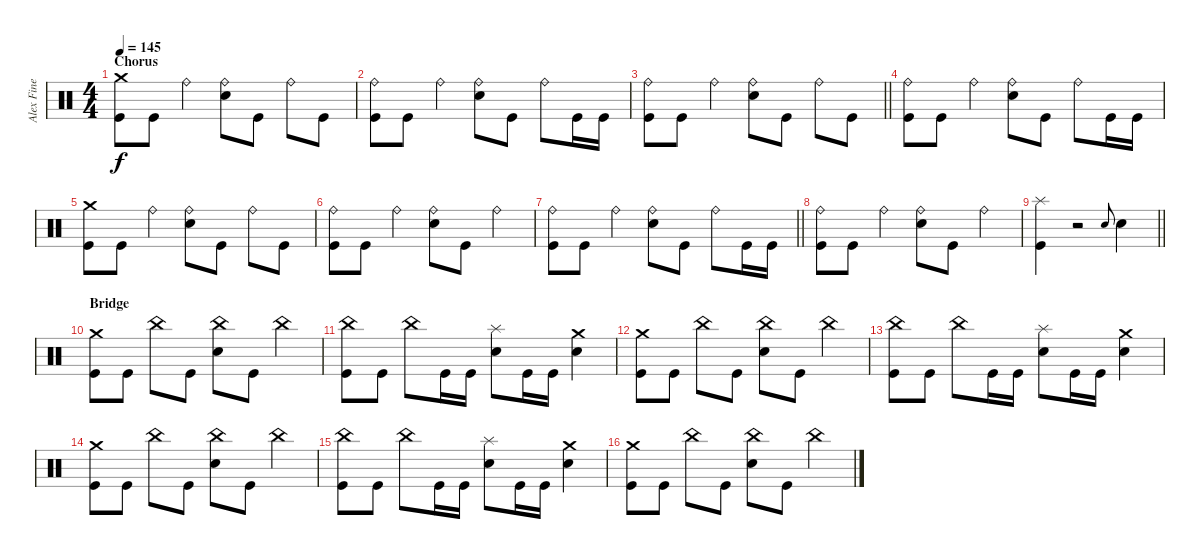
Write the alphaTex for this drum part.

\track ("Alex Fine (Drums)" "Alex Fine ") {instrument percussion}
\staff {score}
\articulation defaults
\ts (4 4)
\section ("" "Chorus")
\tempo 145
\clef neutral
\ks c
("Crash medium (hit)" "Kick (hit)").8{dy f} "Kick (hit)".8 "Ride (bell)".4 ("Ride (bell)" "Snare (hit) 2").8 "Kick (hit)".8 "Ride (bell)".8 "Kick (hit)".8 |
("Ride (bell)" "Kick (hit)").8 "Kick (hit)".8 "Ride (bell)".4 ("Ride (bell)" "Snare (hit) 2").8 "Kick (hit)".8 "Ride (bell)".8 "Kick (hit)".16 "Kick (hit)".16 |
\barLineRight lightlight
("Ride (bell)" "Kick (hit)").8 "Kick (hit)".8 "Ride (bell)".4 ("Ride (bell)" "Snare (hit) 2").8 "Kick (hit)".8 "Ride (bell)".8 "Kick (hit)".8 |
("Ride (bell)" "Kick (hit)").8 "Kick (hit)".8 "Ride (bell)".4 ("Ride (bell)" "Snare (hit) 2").8 "Kick (hit)".8 "Ride (bell)".8 "Kick (hit)".16 "Kick (hit)".16 |
("Crash medium (hit)" "Kick (hit)").8 "Kick (hit)".8 "Ride (bell)".4 ("Ride (bell)" "Snare (hit) 2").8 "Kick (hit)".8 "Ride (bell)".8 "Kick (hit)".8 |
("Ride (bell)" "Kick (hit)").8 "Kick (hit)".8 "Ride (bell)".4 ("Ride (bell)" "Snare (hit) 2").8 "Kick (hit)".8 "Ride (bell)".4 |
\barLineRight lightlight
("Ride (bell)" "Kick (hit)").8 "Kick (hit)".8 "Ride (bell)".4 ("Ride (bell)" "Snare (hit) 2").8 "Kick (hit)".8 "Ride (bell)".8 "Kick (hit)".16 "Kick (hit)".16 |
("Ride (bell)" "Kick (hit)").8 "Kick (hit)".8 "Ride (bell)".4 ("Ride (bell)" "Snare (hit) 2").8 "Kick (hit)".8 "Ride (bell)".4 |
\barLineRight lightlight
("Splash (hit)" "Kick (hit)").4 r.2 "Snare (hit) 2".8{gr onbeat} "Snare (hit) 2".4 |
\section ("" "Bridge")
("Crash medium (hit)" "Kick (hit)").8 "Kick (hit)".8 "China (hit)".8 "Kick (hit)".8 ("China (hit)" "Snare (hit) 2").8 "Kick (hit)".8 "China (hit)".4 |
("China (hit)" "Kick (hit)").8 "Kick (hit)".8 "China (hit)".8 "Kick (hit)".16 "Kick (hit)".16 ("Splash (hit)" "Snare (hit) 2").8 "Kick (hit)".16 "Kick (hit)".16 ("Crash medium (hit)" "Snare (hit) 2").4 |
("Crash medium (hit)" "Kick (hit)").8 "Kick (hit)".8 "China (hit)".8 "Kick (hit)".8 ("China (hit)" "Snare (hit) 2").8 "Kick (hit)".8 "China (hit)".4 |
("China (hit)" "Kick (hit)").8 "Kick (hit)".8 "China (hit)".8 "Kick (hit)".16 "Kick (hit)".16 ("Splash (hit)" "Snare (hit) 2").8 "Kick (hit)".16 "Kick (hit)".16 ("Crash medium (hit)" "Snare (hit) 2").4 |
("Crash medium (hit)" "Kick (hit)").8 "Kick (hit)".8 "China (hit)".8 "Kick (hit)".8 ("China (hit)" "Snare (hit) 2").8 "Kick (hit)".8 "China (hit)".4 |
("China (hit)" "Kick (hit)").8 "Kick (hit)".8 "China (hit)".8 "Kick (hit)".16 "Kick (hit)".16 ("Splash (hit)" "Snare (hit) 2").8 "Kick (hit)".16 "Kick (hit)".16 ("Crash medium (hit)" "Snare (hit) 2").4 |
("Crash medium (hit)" "Kick (hit)").8 "Kick (hit)".8 "China (hit)".8 "Kick (hit)".8 ("China (hit)" "Snare (hit) 2").8 "Kick (hit)".8 "China (hit)".4
